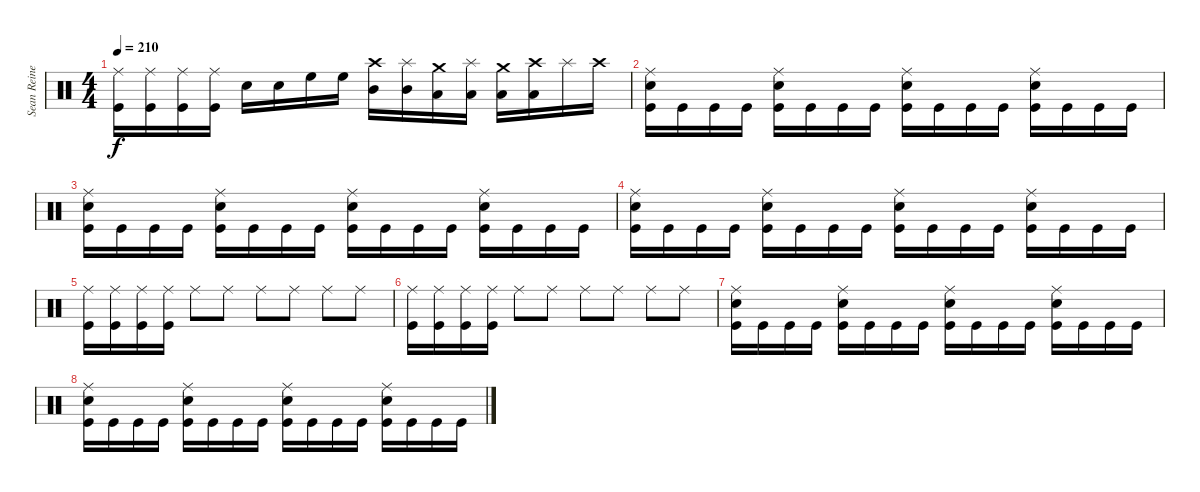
\track ("Sean Reinert" "Sean Reine") {instrument percussion}
\staff {score}
\articulation defaults
\ts (4 4)
\tempo 210
\clef neutral
\ks c
("Ride (middle)" "Kick (hit)").16{dy f} ("Ride (middle)" "Kick (hit)").16 ("Ride (middle)" "Kick (hit)").16 ("Ride (middle)" "Kick (hit)").16 "Snare (hit) 2".16 "Snare (hit) 2".16 "High Floor Tom (hit)".16 "High Floor Tom (hit)".16 ("Crash high (hit)" "Mid Tom (hit)").16 ("Splash (hit)" "Mid Tom (hit)").16 ("Crash medium (hit)" "Low Tom (hit)").16 ("Splash (hit)" "Low Tom (hit)").16 ("Crash medium (hit)" "Low Floor Tom (hit)").16 ("Crash high (hit)" "Low Floor Tom (hit)").16 "Splash (hit)".16 "Crash high (hit)".16 |
("Ride (middle)" "Snare (hit) 2" "Kick (hit)").16 "Kick (hit)".16 "Kick (hit)".16 "Kick (hit)".16 ("Ride (middle)" "Snare (hit) 2" "Kick (hit)").16 "Kick (hit)".16 "Kick (hit)".16 "Kick (hit)".16 ("Ride (middle)" "Snare (hit) 2" "Kick (hit)").16 "Kick (hit)".16 "Kick (hit)".16 "Kick (hit)".16 ("Ride (middle)" "Snare (hit) 2" "Kick (hit)").16 "Kick (hit)".16 "Kick (hit)".16 "Kick (hit)".16 |
("Ride (middle)" "Snare (hit) 2" "Kick (hit)").16 "Kick (hit)".16 "Kick (hit)".16 "Kick (hit)".16 ("Ride (middle)" "Snare (hit) 2" "Kick (hit)").16 "Kick (hit)".16 "Kick (hit)".16 "Kick (hit)".16 ("Ride (middle)" "Snare (hit) 2" "Kick (hit)").16 "Kick (hit)".16 "Kick (hit)".16 "Kick (hit)".16 ("Ride (middle)" "Snare (hit) 2" "Kick (hit)").16 "Kick (hit)".16 "Kick (hit)".16 "Kick (hit)".16 |
("Ride (middle)" "Snare (hit) 2" "Kick (hit)").16 "Kick (hit)".16 "Kick (hit)".16 "Kick (hit)".16 ("Ride (middle)" "Snare (hit) 2" "Kick (hit)").16 "Kick (hit)".16 "Kick (hit)".16 "Kick (hit)".16 ("Ride (middle)" "Snare (hit) 2" "Kick (hit)").16 "Kick (hit)".16 "Kick (hit)".16 "Kick (hit)".16 ("Ride (middle)" "Snare (hit) 2" "Kick (hit)").16 "Kick (hit)".16 "Kick (hit)".16 "Kick (hit)".16 |
("Ride (middle)" "Kick (hit)").16 ("Ride (middle)" "Kick (hit)").16 ("Ride (middle)" "Kick (hit)").16 ("Ride (middle)" "Kick (hit)").16 "Ride (middle)".8 "Ride (middle)".8 "Ride (middle)".8 "Ride (middle)".8 "Ride (middle)".8 "Ride (middle)".8 |
("Ride (middle)" "Kick (hit)").16 ("Ride (middle)" "Kick (hit)").16 ("Ride (middle)" "Kick (hit)").16 ("Ride (middle)" "Kick (hit)").16 "Ride (middle)".8 "Ride (middle)".8 "Ride (middle)".8 "Ride (middle)".8 "Ride (middle)".8 "Ride (middle)".8 |
("Ride (middle)" "Snare (hit) 2" "Kick (hit)").16 "Kick (hit)".16 "Kick (hit)".16 "Kick (hit)".16 ("Ride (middle)" "Snare (hit) 2" "Kick (hit)").16 "Kick (hit)".16 "Kick (hit)".16 "Kick (hit)".16 ("Ride (middle)" "Snare (hit) 2" "Kick (hit)").16 "Kick (hit)".16 "Kick (hit)".16 "Kick (hit)".16 ("Ride (middle)" "Snare (hit) 2" "Kick (hit)").16 "Kick (hit)".16 "Kick (hit)".16 "Kick (hit)".16 |
("Ride (middle)" "Snare (hit) 2" "Kick (hit)").16 "Kick (hit)".16 "Kick (hit)".16 "Kick (hit)".16 ("Ride (middle)" "Snare (hit) 2" "Kick (hit)").16 "Kick (hit)".16 "Kick (hit)".16 "Kick (hit)".16 ("Ride (middle)" "Snare (hit) 2" "Kick (hit)").16 "Kick (hit)".16 "Kick (hit)".16 "Kick (hit)".16 ("Ride (middle)" "Snare (hit) 2" "Kick (hit)").16 "Kick (hit)".16 "Kick (hit)".16 "Kick (hit)".16
